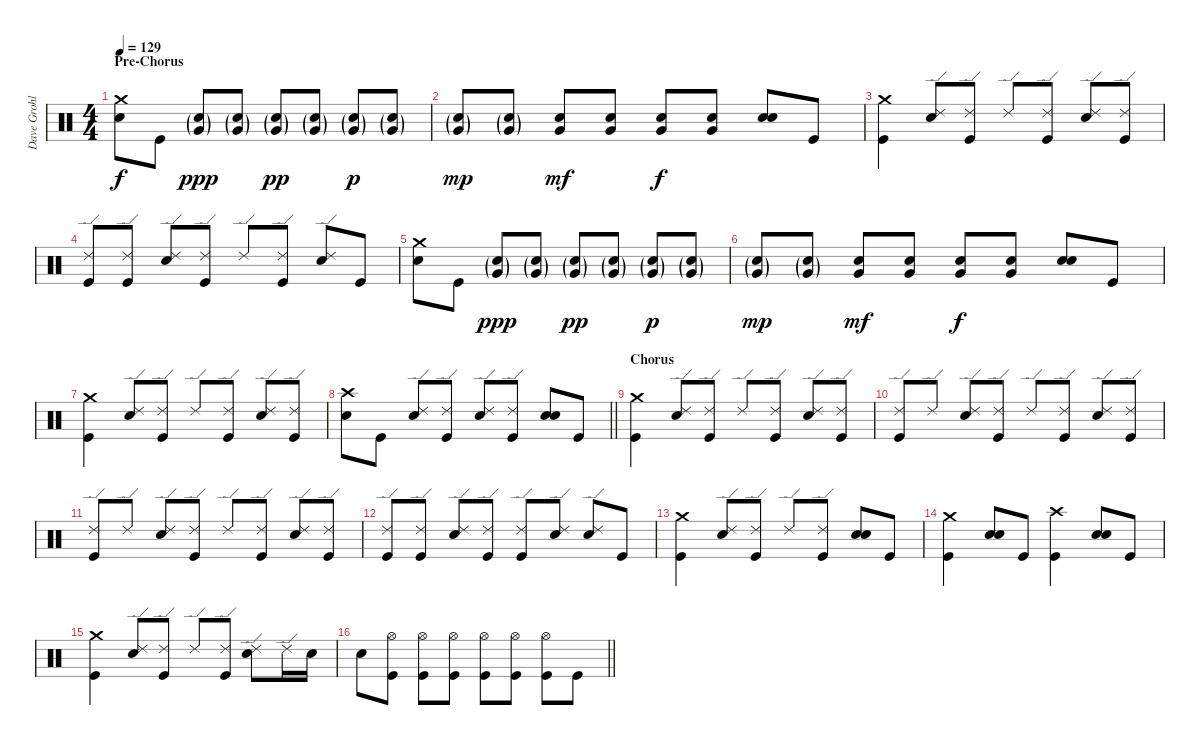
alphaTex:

\track ("Dave Grohl" "Dave Grohl") {instrument percussion}
\staff {score}
\articulation defaults
\ts (4 4)
\section ("" "Pre-Chorus")
\tempo 129
\clef neutral
\ks c
("Crash medium (hit)" "Electric Snare (hit)").8{dy f} "Kick (hit)".8 ("Electric Snare (hit)"{g} "Very Low Tom (hit)"{g}).8{dy ppp} ("Electric Snare (hit)"{g} "Very Low Tom (hit)"{g}).8 ("Electric Snare (hit)"{g} "Very Low Tom (hit)"{g}).8{dy pp} ("Electric Snare (hit)"{g} "Very Low Tom (hit)"{g}).8 ("Electric Snare (hit)"{g} "Very Low Tom (hit)"{g}).8{dy p} ("Electric Snare (hit)"{g} "Very Low Tom (hit)"{g}).8 |
("Electric Snare (hit)"{g} "Very Low Tom (hit)"{g}).8{dy mp} ("Electric Snare (hit)"{g} "Very Low Tom (hit)"{g}).8 ("Electric Snare (hit)" "Very Low Tom (hit)").8{dy mf} ("Electric Snare (hit)" "Very Low Tom (hit)").8 ("Electric Snare (hit)" "Very Low Tom (hit)").8{dy f} ("Electric Snare (hit)" "Very Low Tom (hit)").8 ("Electric Snare (hit)" "Electric Snare (hit)").8{bd 120} "Kick (hit)".8 |
("Crash medium (hit)" "Kick (hit)").4 ("Ride (edge) 2" "Electric Snare (hit)").8 ("Ride (edge) 2" "Kick (hit)").8 "Ride (edge) 2".8 ("Ride (edge) 2" "Kick (hit)").8 ("Ride (edge) 2" "Electric Snare (hit)").8 ("Ride (edge) 2" "Kick (hit)").8 |
("Ride (edge) 2" "Kick (hit)").8 ("Ride (edge) 2" "Kick (hit)").8 ("Ride (edge) 2" "Electric Snare (hit)").8 ("Ride (edge) 2" "Kick (hit)").8 "Ride (edge) 2".8 ("Ride (edge) 2" "Kick (hit)").8 ("Ride (edge) 2" "Electric Snare (hit)").8 "Kick (hit)".8 |
("Crash medium (hit)" "Electric Snare (hit)").8 "Kick (hit)".8 ("Electric Snare (hit)"{g} "Very Low Tom (hit)"{g}).8{dy ppp} ("Electric Snare (hit)"{g} "Very Low Tom (hit)"{g}).8 ("Electric Snare (hit)"{g} "Very Low Tom (hit)"{g}).8{dy pp} ("Electric Snare (hit)"{g} "Very Low Tom (hit)"{g}).8 ("Electric Snare (hit)"{g} "Very Low Tom (hit)"{g}).8{dy p} ("Electric Snare (hit)"{g} "Very Low Tom (hit)"{g}).8 |
("Electric Snare (hit)"{g} "Very Low Tom (hit)"{g}).8{dy mp} ("Electric Snare (hit)"{g} "Very Low Tom (hit)"{g}).8 ("Electric Snare (hit)" "Very Low Tom (hit)").8{dy mf} ("Electric Snare (hit)" "Very Low Tom (hit)").8 ("Electric Snare (hit)" "Very Low Tom (hit)").8{dy f} ("Electric Snare (hit)" "Very Low Tom (hit)").8 ("Electric Snare (hit)" "Electric Snare (hit)").8{bd 120} "Kick (hit)".8 |
("Crash medium (hit)" "Kick (hit)").4 ("Ride (edge) 2" "Electric Snare (hit)").8 ("Ride (edge) 2" "Kick (hit)").8 "Ride (edge) 2".8 ("Ride (edge) 2" "Kick (hit)").8 ("Ride (edge) 2" "Electric Snare (hit)").8 ("Ride (edge) 2" "Kick (hit)").8 |
\barLineRight lightlight
("Crash high (hit)" "Electric Snare (hit)").8 "Kick (hit)".8 ("Ride (edge) 2" "Electric Snare (hit)").8 ("Ride (edge) 2" "Kick (hit)").8 ("Ride (edge) 2" "Electric Snare (hit)").8 ("Ride (edge) 2" "Kick (hit)").8 ("Electric Snare (hit)" "Electric Snare (hit)").8{bd 120} "Kick (hit)".8 |
\section ("" "Chorus")
("Crash medium (hit)" "Kick (hit)").4 ("Ride (edge) 2" "Electric Snare (hit)").8 ("Ride (edge) 2" "Kick (hit)").8 "Ride (edge) 2".8 ("Ride (edge) 2" "Kick (hit)").8 ("Ride (edge) 2" "Electric Snare (hit)").8 ("Ride (edge) 2" "Kick (hit)").8 |
("Ride (edge) 2" "Kick (hit)").8 "Ride (edge) 2".8 ("Ride (edge) 2" "Electric Snare (hit)").8 ("Ride (edge) 2" "Kick (hit)").8 "Ride (edge) 2".8 ("Ride (edge) 2" "Kick (hit)").8 ("Ride (edge) 2" "Electric Snare (hit)").8 ("Ride (edge) 2" "Kick (hit)").8 |
("Ride (edge) 2" "Kick (hit)").8 "Ride (edge) 2".8 ("Ride (edge) 2" "Electric Snare (hit)").8 ("Ride (edge) 2" "Kick (hit)").8 "Ride (edge) 2".8 ("Ride (edge) 2" "Kick (hit)").8 ("Ride (edge) 2" "Electric Snare (hit)").8 ("Ride (edge) 2" "Kick (hit)").8 |
("Ride (edge) 2" "Kick (hit)").8 ("Ride (edge) 2" "Kick (hit)").8 ("Ride (edge) 2" "Electric Snare (hit)").8 ("Ride (edge) 2" "Kick (hit)").8 ("Ride (edge) 2" "Kick (hit)").8 ("Ride (edge) 2" "Electric Snare (hit)").8 ("Ride (edge) 2" "Electric Snare (hit)").8 "Kick (hit)".8 |
("Crash medium (hit)" "Kick (hit)").4 ("Ride (edge) 2" "Electric Snare (hit)").8 ("Ride (edge) 2" "Kick (hit)").8 "Ride (edge) 2".8 ("Ride (edge) 2" "Kick (hit)").8 ("Electric Snare (hit)" "Electric Snare (hit)").8{bd 120} "Kick (hit)".8 |
("Crash medium (hit)" "Kick (hit)").4 ("Electric Snare (hit)" "Electric Snare (hit)").8{bd 120} "Kick (hit)".8 ("Crash high (hit)" "Kick (hit)").4 ("Electric Snare (hit)" "Electric Snare (hit)").8{bd 120} "Kick (hit)".8 |
("Crash medium (hit)" "Kick (hit)").4 ("Ride (edge) 2" "Electric Snare (hit)").8 ("Ride (edge) 2" "Kick (hit)").8 "Ride (edge) 2".8 ("Ride (edge) 2" "Kick (hit)").8 ("Ride (edge) 2" "Electric Snare (hit)").8 "Ride (edge) 2".16 "Electric Snare (hit)".16 |
\barLineRight lightlight "Electric Snare (hit)".8
("Hi-Hat (open)" "Kick (hit)").8 ("Hi-Hat (open)" "Kick (hit)").8 ("Hi-Hat (open)" "Kick (hit)").8 ("Hi-Hat (open)" "Kick (hit)").8 ("Hi-Hat (open)" "Kick (hit)").8 ("Hi-Hat (open)" "Kick (hit)").8 "Kick (hit)".8
